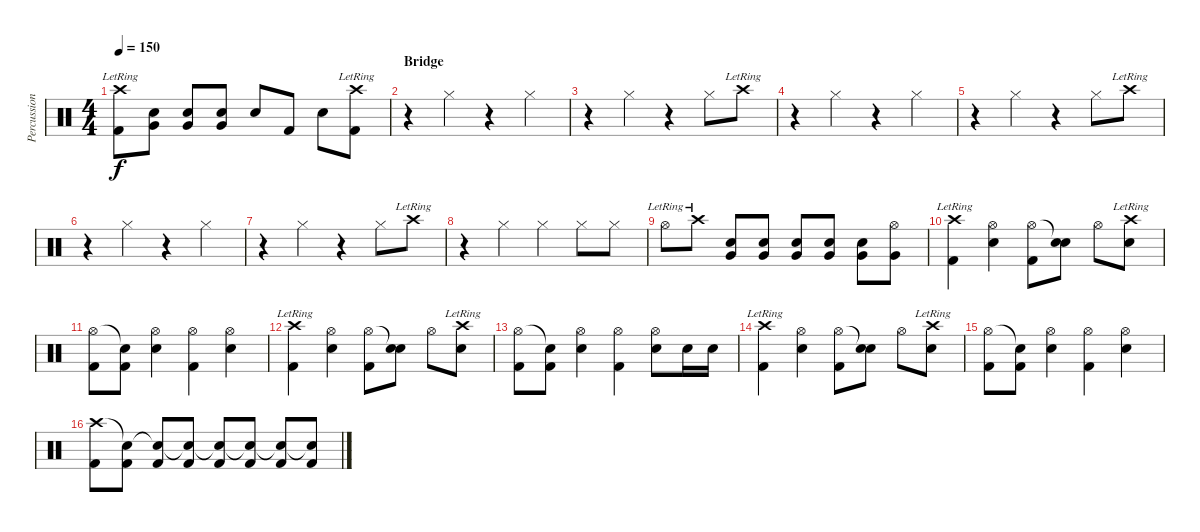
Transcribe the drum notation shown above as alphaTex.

\track ("Percussion" "Percussion") {instrument percussion}
\staff {score}
\articulation defaults
\ts (4 4)
\tempo 150
\clef neutral
\ks c
("Crash high (hit)"{lr} "Kick (hit) 2").8{dy f} ("Very Low Tom (hit)" "Snare (hit) 2").8 ("Very Low Tom (hit)" "Snare (hit) 2").8 ("Very Low Tom (hit)" "Snare (hit) 2").8 "Snare (hit) 2".8 "Kick (hit) 2".8 "Snare (hit) 2".8 ("Crash high (hit)"{lr} "Kick (hit) 2").8 |
\section ("" "Bridge")
r.4 "Hi-Hat (closed)".4 r.4 "Hi-Hat (closed)".4 |
r.4 "Hi-Hat (closed)".4 r.4 "Hi-Hat (closed)".8 "Crash high (hit)"{lr}.8 |
r.4 "Hi-Hat (closed)".4 r.4 "Hi-Hat (closed)".4 |
r.4 "Hi-Hat (closed)".4 r.4 "Hi-Hat (closed)".8 "Crash high (hit)"{lr}.8 |
r.4 "Hi-Hat (closed)".4 r.4 "Hi-Hat (closed)".4 |
r.4 "Hi-Hat (closed)".4 r.4 "Hi-Hat (closed)".8 "Crash high (hit)"{lr}.8 |
r.4 "Hi-Hat (closed)".4 "Hi-Hat (closed)".4 "Hi-Hat (closed)".8 "Hi-Hat (closed)".8 |
"Hi-Hat (open)"{lr}.8 "Crash high (hit)"{lr}.8 ("Very Low Tom (hit)" "Snare (hit) 2").8 ("Very Low Tom (hit)" "Snare (hit) 2").8 ("Very Low Tom (hit)" "Snare (hit) 2").8 ("Very Low Tom (hit)" "Snare (hit) 2").8 ("Very Low Tom (hit)" "Snare (hit) 2").8 ("Hi-Hat (open)" "Very Low Tom (hit)").8 |
("Crash high (hit)"{lr} "Kick (hit) 2").4 ("Hi-Hat (open)" "Snare (hit) 2").4 ("Hi-Hat (open)" "Kick (hit) 2").8 ("Snare (hit)"{t} "Snare (hit) 2").8 "Hi-Hat (open)".8 ("Crash high (hit)"{lr} "Snare (hit) 2").8 |
("Hi-Hat (open)" "Kick (hit) 2").8 ("Snare (hit)"{t} "Kick (hit) 2").8 ("Hi-Hat (open)" "Snare (hit) 2").4 ("Hi-Hat (open)" "Kick (hit) 2").4 ("Hi-Hat (open)" "Snare (hit) 2").4 |
("Crash high (hit)"{lr} "Kick (hit) 2").4 ("Hi-Hat (open)" "Snare (hit) 2").4 ("Hi-Hat (open)" "Kick (hit) 2").8 ("Snare (hit)"{t} "Snare (hit) 2").8 "Hi-Hat (open)".8 ("Crash high (hit)"{lr} "Snare (hit) 2").8 |
("Hi-Hat (open)" "Kick (hit) 2").8 ("Snare (hit)"{t} "Kick (hit) 2").8 ("Hi-Hat (open)" "Snare (hit) 2").4 ("Hi-Hat (open)" "Kick (hit) 2").4 ("Hi-Hat (open)" "Snare (hit) 2").8 "Snare (hit) 2".16 "Snare (hit) 2".16 |
("Crash high (hit)"{lr} "Kick (hit) 2").4 ("Hi-Hat (open)" "Snare (hit) 2").4 ("Hi-Hat (open)" "Kick (hit) 2").8 ("Snare (hit)"{t} "Snare (hit) 2").8 "Hi-Hat (open)".8 ("Crash high (hit)"{lr} "Snare (hit) 2").8 |
("Hi-Hat (open)" "Kick (hit) 2").8 ("Snare (hit)"{t} "Kick (hit) 2").8 ("Hi-Hat (open)" "Snare (hit) 2").4 ("Hi-Hat (open)" "Kick (hit) 2").4 ("Hi-Hat (open)" "Snare (hit) 2").4 |
("Crash high (hit)" "Kick (hit) 2").8 ("Snare (hit)"{t} "Kick (hit) 2").8 ("Snare (hit)"{t} "Kick (hit) 2").8 ("Snare (hit)"{t} "Kick (hit) 2").8 ("Snare (hit)"{t} "Kick (hit) 2").8 ("Snare (hit)"{t} "Kick (hit) 2").8 ("Snare (hit)"{t} "Kick (hit) 2").8 ("Snare (hit)"{t} "Kick (hit) 2").8
